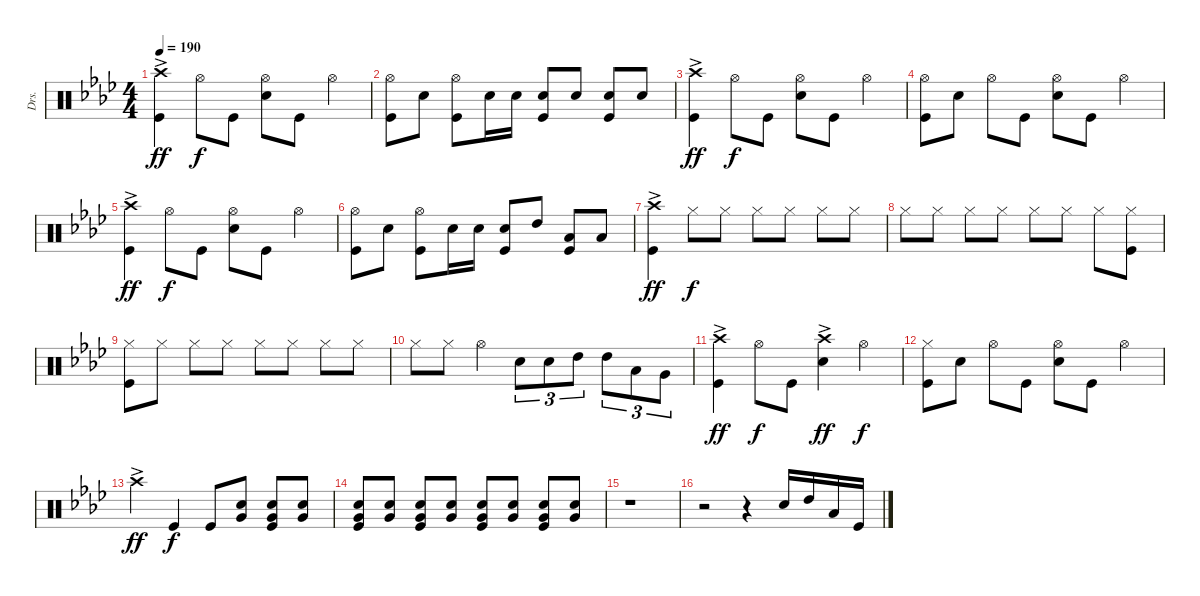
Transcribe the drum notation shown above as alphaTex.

\track ("Drs." "Drs.") {instrument percussion}
\staff {score}
\articulation defaults
\ts (4 4)
\tempo 190
\clef neutral
\ks ab
("Crash high (hit)"{ac} "Kick (hit)").4{dy ff} "Hi-Hat (open)".8{dy f} "Kick (hit)".8 ("Hi-Hat (open)" "Snare (hit) 2").8 "Kick (hit)".8 "Hi-Hat (open)".4 |
("Hi-Hat (open)" "Kick (hit)").8 "Snare (hit) 2".8 ("Hi-Hat (open)" "Kick (hit)").8 "Snare (hit) 2".16 "Snare (hit) 2".16 ("Snare (hit) 2" "Kick (hit)").8 "Snare (hit) 2".8 ("Snare (hit) 2" "Kick (hit)").8 "Snare (hit) 2".8 |
("Crash high (hit)"{ac} "Kick (hit)").4{dy ff} "Hi-Hat (open)".8{dy f} "Kick (hit)".8 ("Hi-Hat (open)" "Snare (hit) 2").8 "Kick (hit)".8 "Hi-Hat (open)".4 |
("Hi-Hat (open)" "Kick (hit)").8 "Snare (hit) 2".8 "Hi-Hat (open)".8 "Kick (hit)".8 ("Hi-Hat (open)" "Snare (hit) 2").8 "Kick (hit)".8 "Hi-Hat (open)".4 |
("Crash high (hit)"{ac} "Kick (hit)").4{dy ff} "Hi-Hat (open)".8{dy f} "Kick (hit)".8 ("Hi-Hat (open)" "Snare (hit) 2").8 "Kick (hit)".8 "Hi-Hat (open)".4 |
("Hi-Hat (open)" "Kick (hit)").8 "Snare (hit) 2".8 ("Hi-Hat (open)" "Kick (hit)").8 "Snare (hit) 2".16 "Snare (hit) 2".16 ("Snare (hit) 2" "Kick (hit)").8 "High Tom (hit)".8 ("Low Tom (hit)" "Kick (hit)").8 "Low Tom (hit)".8 |
("Crash high (hit)"{ac} "Kick (hit)").4{dy ff} "Hi-Hat (closed)".8{dy f} "Hi-Hat (closed)".8 "Hi-Hat (closed)".8 "Hi-Hat (closed)".8 "Hi-Hat (closed)".8 "Hi-Hat (closed)".8 |
"Hi-Hat (closed)".8 "Hi-Hat (closed)".8 "Hi-Hat (closed)".8 "Hi-Hat (closed)".8 "Hi-Hat (closed)".8 "Hi-Hat (closed)".8 "Hi-Hat (closed)".8 ("Hi-Hat (closed)" "Kick (hit)").8 |
("Hi-Hat (closed)" "Kick (hit)").8 "Hi-Hat (closed)".8 "Hi-Hat (closed)".8 "Hi-Hat (closed)".8 "Hi-Hat (closed)".8 "Hi-Hat (closed)".8 "Hi-Hat (closed)".8 "Hi-Hat (closed)".8 |
"Hi-Hat (closed)".8 "Hi-Hat (closed)".8 "Hi-Hat (open)".4 "Snare (hit) 2".8{tu (3 2)} "Snare (hit) 2".8{tu (3 2)} "High Tom (hit)".8{tu (3 2)} "High Tom (hit)".8{tu (3 2)} "Low Tom (hit)".8{tu (3 2)} "Very Low Tom (hit)".8{tu (3 2)} |
("Crash high (hit)"{ac} "Kick (hit)").4{dy ff} "Hi-Hat (open)".8{dy f} "Kick (hit)".8 ("Crash high (hit)"{ac} "Snare (hit) 2").4{dy ff} "Hi-Hat (open)".4{dy f} |
("Hi-Hat (closed)" "Kick (hit)").8 "Snare (hit) 2".8 "Hi-Hat (open)".8 "Kick (hit)".8 ("Hi-Hat (open)" "Snare (hit) 2").8 "Kick (hit)".8 "Hi-Hat (open)".4 |
"Crash high (hit)"{ac}.4{dy ff} "Kick (hit)".4{dy f} "Kick (hit)".8 ("Snare (hit) 2" "Very Low Tom (hit)").8 ("Snare (hit) 2" "Very Low Tom (hit)" "Kick (hit)").8 ("Snare (hit) 2" "Very Low Tom (hit)").8 |
("Snare (hit) 2" "Very Low Tom (hit)" "Kick (hit)").8 ("Snare (hit) 2" "Very Low Tom (hit)").8 ("Snare (hit) 2" "Very Low Tom (hit)" "Kick (hit)").8 ("Snare (hit) 2" "Very Low Tom (hit)").8 ("Snare (hit) 2" "Very Low Tom (hit)" "Kick (hit)").8 ("Snare (hit) 2" "Very Low Tom (hit)").8 ("Snare (hit) 2" "Very Low Tom (hit)" "Kick (hit)").8 ("Snare (hit) 2" "Very Low Tom (hit)").8 |
r.1 |
r.2 r.4 "Snare (hit) 2".16 "High Tom (hit)".16 "Low Tom (hit)".16 "Kick (hit)".16
